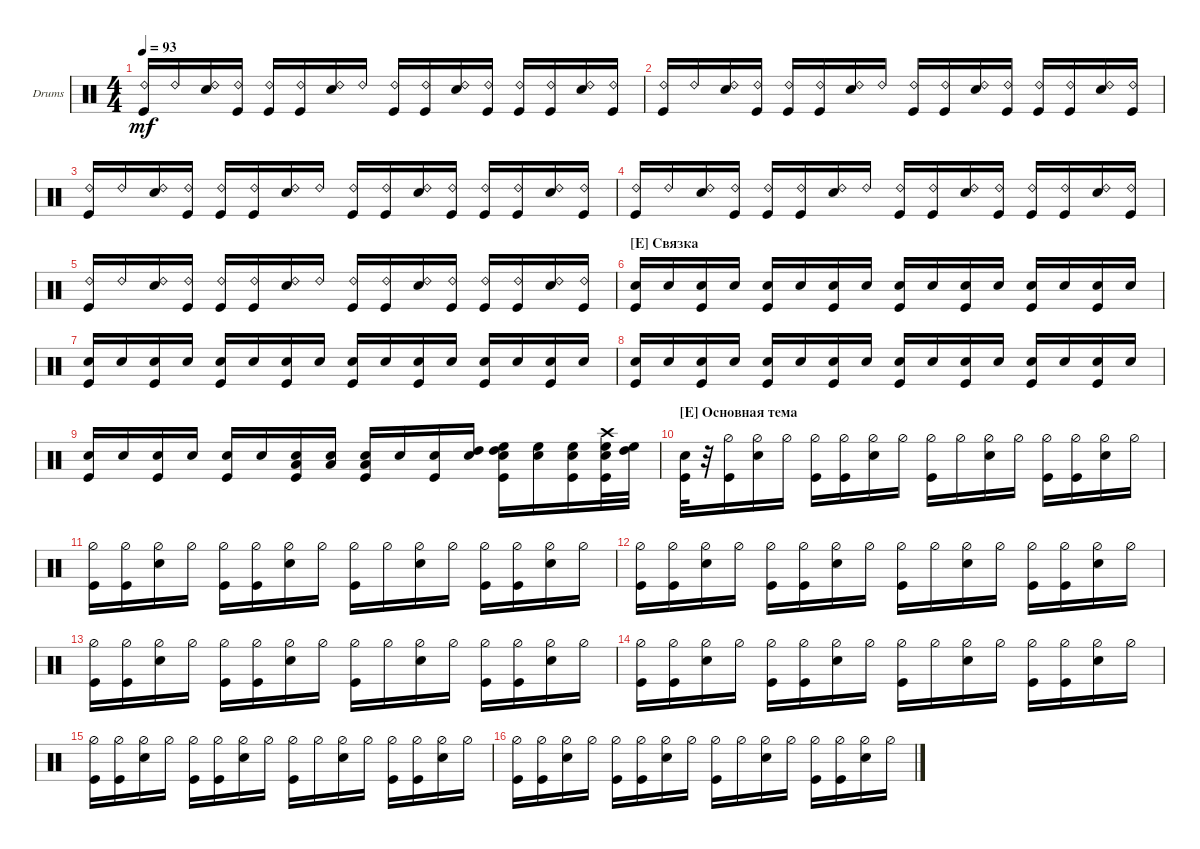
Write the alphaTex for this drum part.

\defaultSystemsLayout 4
\bracketExtendMode groupsimilarinstruments
\firstSystemTrackNameOrientation horizontal
\otherSystemsTrackNameOrientation horizontal
\track ("Drumkit" "Drums") {instrument percussion}
\staff {score}
\articulation defaults
\ts (4 4)
\tempo 93
\clef neutral
\ks c
("Kick (hit)" "Ride (bell) 2").16{dy mf} "Ride (bell) 2".16 ("Snare (hit) 2" "Ride (bell) 2").16 ("Kick (hit)" "Ride (bell) 2").16 ("Kick (hit)" "Ride (bell) 2").16 ("Kick (hit)" "Ride (bell) 2").16 ("Snare (hit) 2" "Ride (bell) 2").16 "Ride (bell) 2".16 ("Kick (hit)" "Ride (bell) 2").16 ("Kick (hit)" "Ride (bell) 2").16 ("Snare (hit) 2" "Ride (bell) 2").16 ("Kick (hit)" "Ride (bell) 2").16 ("Kick (hit)" "Ride (bell) 2").16 ("Kick (hit)" "Ride (bell) 2").16 ("Snare (hit) 2" "Ride (bell) 2").16 ("Kick (hit)" "Ride (bell) 2").16 |
("Kick (hit)" "Ride (bell) 2").16 "Ride (bell) 2".16 ("Snare (hit) 2" "Ride (bell) 2").16 ("Kick (hit)" "Ride (bell) 2").16 ("Kick (hit)" "Ride (bell) 2").16 ("Kick (hit)" "Ride (bell) 2").16 ("Snare (hit) 2" "Ride (bell) 2").16 "Ride (bell) 2".16 ("Kick (hit)" "Ride (bell) 2").16 ("Kick (hit)" "Ride (bell) 2").16 ("Snare (hit) 2" "Ride (bell) 2").16 ("Kick (hit)" "Ride (bell) 2").16 ("Kick (hit)" "Ride (bell) 2").16 ("Kick (hit)" "Ride (bell) 2").16 ("Snare (hit) 2" "Ride (bell) 2").16 ("Kick (hit)" "Ride (bell) 2").16 |
("Kick (hit)" "Ride (bell) 2").16 "Ride (bell) 2".16 ("Snare (hit) 2" "Ride (bell) 2").16 ("Kick (hit)" "Ride (bell) 2").16 ("Kick (hit)" "Ride (bell) 2").16 ("Kick (hit)" "Ride (bell) 2").16 ("Snare (hit) 2" "Ride (bell) 2").16 "Ride (bell) 2".16 ("Kick (hit)" "Ride (bell) 2").16 ("Kick (hit)" "Ride (bell) 2").16 ("Snare (hit) 2" "Ride (bell) 2").16 ("Kick (hit)" "Ride (bell) 2").16 ("Kick (hit)" "Ride (bell) 2").16 ("Kick (hit)" "Ride (bell) 2").16 ("Snare (hit) 2" "Ride (bell) 2").16 ("Kick (hit)" "Ride (bell) 2").16 |
("Kick (hit)" "Ride (bell) 2").16 "Ride (bell) 2".16 ("Snare (hit) 2" "Ride (bell) 2").16 ("Kick (hit)" "Ride (bell) 2").16 ("Kick (hit)" "Ride (bell) 2").16 ("Kick (hit)" "Ride (bell) 2").16 ("Snare (hit) 2" "Ride (bell) 2").16 "Ride (bell) 2".16 ("Kick (hit)" "Ride (bell) 2").16 ("Kick (hit)" "Ride (bell) 2").16 ("Snare (hit) 2" "Ride (bell) 2").16 ("Kick (hit)" "Ride (bell) 2").16 ("Kick (hit)" "Ride (bell) 2").16 ("Kick (hit)" "Ride (bell) 2").16 ("Snare (hit) 2" "Ride (bell) 2").16 ("Kick (hit)" "Ride (bell) 2").16 |
("Kick (hit)" "Ride (bell) 2").16 "Ride (bell) 2".16 ("Snare (hit) 2" "Ride (bell) 2").16 ("Kick (hit)" "Ride (bell) 2").16 ("Kick (hit)" "Ride (bell) 2").16 ("Kick (hit)" "Ride (bell) 2").16 ("Snare (hit) 2" "Ride (bell) 2").16 "Ride (bell) 2".16 ("Kick (hit)" "Ride (bell) 2").16 ("Kick (hit)" "Ride (bell) 2").16 ("Snare (hit) 2" "Ride (bell) 2").16 ("Kick (hit)" "Ride (bell) 2").16 ("Kick (hit)" "Ride (bell) 2").16 ("Kick (hit)" "Ride (bell) 2").16 ("Snare (hit) 2" "Ride (bell) 2").16 ("Kick (hit)" "Ride (bell) 2").16 |
\section ("E" "Связка")
("Snare (hit) 2" "Kick (hit)").16 "Snare (hit) 2".16 ("Snare (hit) 2" "Kick (hit)").16 "Snare (hit) 2".16 ("Snare (hit) 2" "Kick (hit)").16 "Snare (hit) 2".16 ("Snare (hit) 2" "Kick (hit)").16 "Snare (hit) 2".16 ("Snare (hit) 2" "Kick (hit)").16 "Snare (hit) 2".16 ("Snare (hit) 2" "Kick (hit)").16 "Snare (hit) 2".16 ("Snare (hit) 2" "Kick (hit)").16 "Snare (hit) 2".16 ("Snare (hit) 2" "Kick (hit)").16 "Snare (hit) 2".16 |
("Snare (hit) 2" "Kick (hit)").16 "Snare (hit) 2".16 ("Snare (hit) 2" "Kick (hit)").16 "Snare (hit) 2".16 ("Snare (hit) 2" "Kick (hit)").16 "Snare (hit) 2".16 ("Snare (hit) 2" "Kick (hit)").16 "Snare (hit) 2".16 ("Snare (hit) 2" "Kick (hit)").16 "Snare (hit) 2".16 ("Snare (hit) 2" "Kick (hit)").16 "Snare (hit) 2".16 ("Snare (hit) 2" "Kick (hit)").16 "Snare (hit) 2".16 ("Snare (hit) 2" "Kick (hit)").16 "Snare (hit) 2".16 |
("Snare (hit) 2" "Kick (hit)").16 "Snare (hit) 2".16 ("Snare (hit) 2" "Kick (hit)").16 "Snare (hit) 2".16 ("Snare (hit) 2" "Kick (hit)").16 "Snare (hit) 2".16 ("Snare (hit) 2" "Kick (hit)").16 "Snare (hit) 2".16 ("Snare (hit) 2" "Kick (hit)").16 "Snare (hit) 2".16 ("Snare (hit) 2" "Kick (hit)").16 "Snare (hit) 2".16 ("Snare (hit) 2" "Kick (hit)").16 "Snare (hit) 2".16 ("Snare (hit) 2" "Kick (hit)").16 "Snare (hit) 2".16 |
("Snare (hit) 2" "Kick (hit)").16 "Snare (hit) 2".16 ("Snare (hit) 2" "Kick (hit)").16 "Snare (hit) 2".16 ("Snare (hit) 2" "Kick (hit)").16 "Snare (hit) 2".16 ("Snare (hit) 2" "Kick (hit)" "Low Tom (hit)").16 ("Snare (hit) 2" "Low Tom (hit)").16 ("Snare (hit) 2" "Kick (hit)" "Low Tom (hit)").16 "Snare (hit) 2".16 ("Kick (hit)" "Snare (hit) 2").16 ("Snare (hit) 2" "High Tom (hit)").16 ("Kick (hit)" "Snare (hit) 2" "High Floor Tom (hit)" "High Tom (hit)").16 ("Snare (hit) 2" "High Floor Tom (hit)").16 ("Snare (hit) 2" "Kick (hit)" "High Floor Tom (hit)").16 ("Snare (hit) 2" "Kick (hit)" "High Floor Tom (hit)" "Crash high (hit)").32 ("High Tom (hit)" "High Floor Tom (hit)").32 |
\section ("E" "Основная тема")
("Kick (hit)" "Snare (hit) 2").32 r.32 ("Hi-Hat (half)" "Kick (hit)").16 ("Snare (hit) 2" "Hi-Hat (half)").16 "Hi-Hat (half)".16 ("Kick (hit)" "Hi-Hat (half)").16 ("Kick (hit)" "Hi-Hat (half)").16 ("Snare (hit) 2" "Hi-Hat (half)").16 "Hi-Hat (half)".16 ("Kick (hit)" "Hi-Hat (half)").16 "Hi-Hat (half)".16 ("Snare (hit) 2" "Hi-Hat (half)").16 "Hi-Hat (half)".16 ("Kick (hit)" "Hi-Hat (half)").16 ("Kick (hit)" "Hi-Hat (half)").16 ("Snare (hit) 2" "Hi-Hat (half)").16 "Hi-Hat (half)".16 |
("Kick (hit)" "Hi-Hat (half)").16 ("Hi-Hat (half)" "Kick (hit)").16 ("Snare (hit) 2" "Hi-Hat (half)").16 "Hi-Hat (half)".16 ("Kick (hit)" "Hi-Hat (half)").16 ("Kick (hit)" "Hi-Hat (half)").16 ("Snare (hit) 2" "Hi-Hat (half)").16 "Hi-Hat (half)".16 ("Kick (hit)" "Hi-Hat (half)").16 "Hi-Hat (half)".16 ("Snare (hit) 2" "Hi-Hat (half)").16 "Hi-Hat (half)".16 ("Kick (hit)" "Hi-Hat (half)").16 ("Kick (hit)" "Hi-Hat (half)").16 ("Snare (hit) 2" "Hi-Hat (half)").16 "Hi-Hat (half)".16 |
("Kick (hit)" "Hi-Hat (half)").16 ("Hi-Hat (half)" "Kick (hit)").16 ("Snare (hit) 2" "Hi-Hat (half)").16 "Hi-Hat (half)".16 ("Kick (hit)" "Hi-Hat (half)").16 ("Kick (hit)" "Hi-Hat (half)").16 ("Snare (hit) 2" "Hi-Hat (half)").16 "Hi-Hat (half)".16 ("Kick (hit)" "Hi-Hat (half)").16 "Hi-Hat (half)".16 ("Snare (hit) 2" "Hi-Hat (half)").16 "Hi-Hat (half)".16 ("Kick (hit)" "Hi-Hat (half)").16 ("Kick (hit)" "Hi-Hat (half)").16 ("Snare (hit) 2" "Hi-Hat (half)").16 "Hi-Hat (half)".16 |
("Kick (hit)" "Hi-Hat (half)").16 ("Hi-Hat (half)" "Kick (hit)").16 ("Snare (hit) 2" "Hi-Hat (half)").16 "Hi-Hat (half)".16 ("Kick (hit)" "Hi-Hat (half)").16 ("Kick (hit)" "Hi-Hat (half)").16 ("Snare (hit) 2" "Hi-Hat (half)").16 "Hi-Hat (half)".16 ("Kick (hit)" "Hi-Hat (half)").16 "Hi-Hat (half)".16 ("Snare (hit) 2" "Hi-Hat (half)").16 "Hi-Hat (half)".16 ("Kick (hit)" "Hi-Hat (half)").16 ("Kick (hit)" "Hi-Hat (half)").16 ("Snare (hit) 2" "Hi-Hat (half)").16 "Hi-Hat (half)".16 |
("Kick (hit)" "Hi-Hat (half)").16 ("Hi-Hat (half)" "Kick (hit)").16 ("Snare (hit) 2" "Hi-Hat (half)").16 "Hi-Hat (half)".16 ("Kick (hit)" "Hi-Hat (half)").16 ("Kick (hit)" "Hi-Hat (half)").16 ("Snare (hit) 2" "Hi-Hat (half)").16 "Hi-Hat (half)".16 ("Kick (hit)" "Hi-Hat (half)").16 "Hi-Hat (half)".16 ("Snare (hit) 2" "Hi-Hat (half)").16 "Hi-Hat (half)".16 ("Kick (hit)" "Hi-Hat (half)").16 ("Kick (hit)" "Hi-Hat (half)").16 ("Snare (hit) 2" "Hi-Hat (half)").16 "Hi-Hat (half)".16 |
("Kick (hit)" "Hi-Hat (half)").16 ("Hi-Hat (half)" "Kick (hit)").16 ("Snare (hit) 2" "Hi-Hat (half)").16 "Hi-Hat (half)".16 ("Kick (hit)" "Hi-Hat (half)").16 ("Kick (hit)" "Hi-Hat (half)").16 ("Snare (hit) 2" "Hi-Hat (half)").16 "Hi-Hat (half)".16 ("Kick (hit)" "Hi-Hat (half)").16 "Hi-Hat (half)".16 ("Snare (hit) 2" "Hi-Hat (half)").16 "Hi-Hat (half)".16 ("Kick (hit)" "Hi-Hat (half)").16 ("Kick (hit)" "Hi-Hat (half)").16 ("Snare (hit) 2" "Hi-Hat (half)").16 "Hi-Hat (half)".16 |
("Kick (hit)" "Hi-Hat (half)").16 ("Hi-Hat (half)" "Kick (hit)").16 ("Snare (hit) 2" "Hi-Hat (half)").16 "Hi-Hat (half)".16 ("Kick (hit)" "Hi-Hat (half)").16 ("Kick (hit)" "Hi-Hat (half)").16 ("Snare (hit) 2" "Hi-Hat (half)").16 "Hi-Hat (half)".16 ("Kick (hit)" "Hi-Hat (half)").16 "Hi-Hat (half)".16 ("Snare (hit) 2" "Hi-Hat (half)").16 "Hi-Hat (half)".16 ("Kick (hit)" "Hi-Hat (half)").16 ("Kick (hit)" "Hi-Hat (half)").16 ("Snare (hit) 2" "Hi-Hat (half)").16 "Hi-Hat (half)".16
